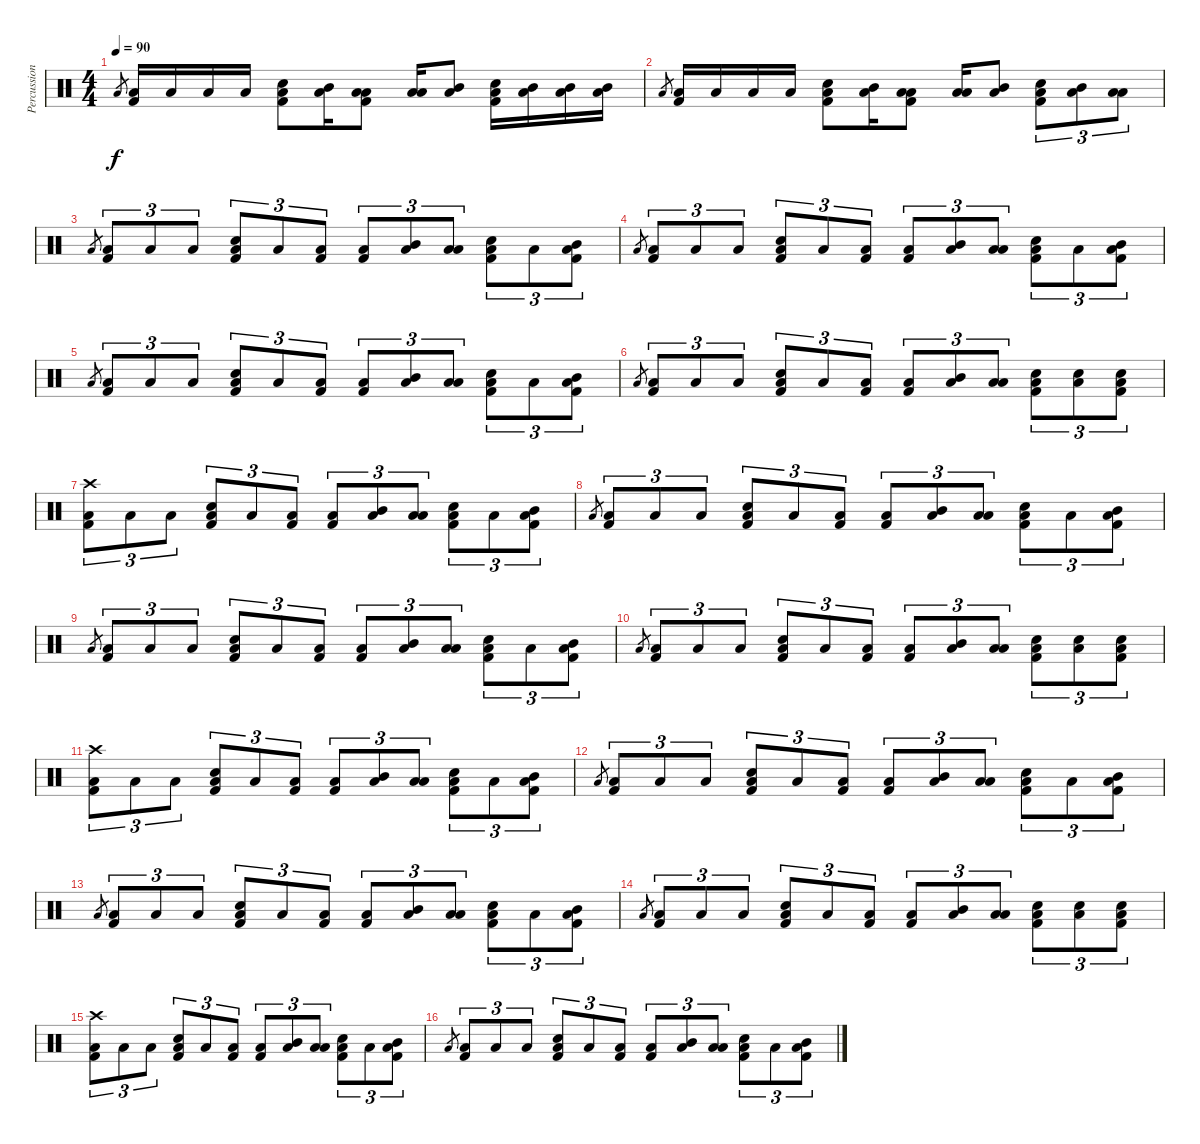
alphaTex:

\track ("Percussion" "Percussion") {instrument percussion}
\staff {score}
\articulation defaults
\ts (4 4)
\tempo 90
\clef neutral
\ks c "Low Floor Tom (hit)".8{gr dy f}
("Low Floor Tom (hit)" "Kick (hit) 2").16 "Low Floor Tom (hit)".16 "Low Floor Tom (hit)".16 "Low Floor Tom (hit)".16 ("Low Floor Tom (hit)" "Snare (hit) 2" "Kick (hit) 2").8 ("Low Floor Tom (hit)" "Mid Tom (hit)").16 ("Low Floor Tom (hit)" "Low Tom (hit)" "Kick (hit) 2").8 ("Low Floor Tom (hit)" "Low Tom (hit)").16 ("Low Floor Tom (hit)" "Mid Tom (hit)").8 ("Low Floor Tom (hit)" "Snare (hit) 2" "Kick (hit) 2").16 ("Low Floor Tom (hit)" "Mid Tom (hit)").16 ("Low Floor Tom (hit)" "Mid Tom (hit)").16 ("Low Floor Tom (hit)" "Mid Tom (hit)").16 |
"Low Floor Tom (hit)".8{gr} ("Low Floor Tom (hit)" "Kick (hit) 2").16 "Low Floor Tom (hit)".16 "Low Floor Tom (hit)".16 "Low Floor Tom (hit)".16 ("Low Floor Tom (hit)" "Snare (hit) 2" "Kick (hit) 2").8 ("Low Floor Tom (hit)" "Mid Tom (hit)").16 ("Low Floor Tom (hit)" "Low Tom (hit)" "Kick (hit) 2").8 ("Low Floor Tom (hit)" "Low Tom (hit)").16 ("Low Floor Tom (hit)" "Mid Tom (hit)").8 ("Low Floor Tom (hit)" "Snare (hit) 2" "Kick (hit) 2").8{tu (3 2)} ("Low Floor Tom (hit)" "Mid Tom (hit)").8{tu (3 2)} ("Low Floor Tom (hit)" "Low Tom (hit)").8{tu (3 2)} |
"Low Floor Tom (hit)".8{gr} ("Low Floor Tom (hit)" "Kick (hit) 2").8{tu (3 2)} "Low Floor Tom (hit)".8{tu (3 2)} "Low Floor Tom (hit)".8{tu (3 2)} ("Low Floor Tom (hit)" "Snare (hit) 2" "Kick (hit) 2").8{tu (3 2)} "Low Floor Tom (hit)".8{tu (3 2)} ("Low Floor Tom (hit)" "Kick (hit) 2").8{tu (3 2)} ("Low Floor Tom (hit)" "Kick (hit) 2").8{tu (3 2)} ("Low Floor Tom (hit)" "Mid Tom (hit)").8{tu (3 2)} ("Low Floor Tom (hit)" "Low Tom (hit)").8{tu (3 2)} ("Low Floor Tom (hit)" "Snare (hit) 2" "Kick (hit) 2").8{tu (3 2)} "Low Floor Tom (hit)".8{tu (3 2)} ("Low Floor Tom (hit)" "Mid Tom (hit)" "Kick (hit) 2").8{tu (3 2)} |
"Low Floor Tom (hit)".8{gr} ("Low Floor Tom (hit)" "Kick (hit) 2").8{tu (3 2)} "Low Floor Tom (hit)".8{tu (3 2)} "Low Floor Tom (hit)".8{tu (3 2)} ("Low Floor Tom (hit)" "Snare (hit) 2" "Kick (hit) 2").8{tu (3 2)} "Low Floor Tom (hit)".8{tu (3 2)} ("Low Floor Tom (hit)" "Kick (hit) 2").8{tu (3 2)} ("Low Floor Tom (hit)" "Kick (hit) 2").8{tu (3 2)} ("Low Floor Tom (hit)" "Mid Tom (hit)").8{tu (3 2)} ("Low Floor Tom (hit)" "Low Tom (hit)").8{tu (3 2)} ("Low Floor Tom (hit)" "Snare (hit) 2" "Kick (hit) 2").8{tu (3 2)} "Low Floor Tom (hit)".8{tu (3 2)} ("Low Floor Tom (hit)" "Mid Tom (hit)" "Kick (hit) 2").8{tu (3 2)} |
"Low Floor Tom (hit)".8{gr} ("Low Floor Tom (hit)" "Kick (hit) 2").8{tu (3 2)} "Low Floor Tom (hit)".8{tu (3 2)} "Low Floor Tom (hit)".8{tu (3 2)} ("Low Floor Tom (hit)" "Snare (hit) 2" "Kick (hit) 2").8{tu (3 2)} "Low Floor Tom (hit)".8{tu (3 2)} ("Low Floor Tom (hit)" "Kick (hit) 2").8{tu (3 2)} ("Low Floor Tom (hit)" "Kick (hit) 2").8{tu (3 2)} ("Low Floor Tom (hit)" "Mid Tom (hit)").8{tu (3 2)} ("Low Floor Tom (hit)" "Low Tom (hit)").8{tu (3 2)} ("Low Floor Tom (hit)" "Snare (hit) 2" "Kick (hit) 2").8{tu (3 2)} "Low Floor Tom (hit)".8{tu (3 2)} ("Low Floor Tom (hit)" "Mid Tom (hit)" "Kick (hit) 2").8{tu (3 2)} |
"Low Floor Tom (hit)".8{gr} ("Low Floor Tom (hit)" "Kick (hit) 2").8{tu (3 2)} "Low Floor Tom (hit)".8{tu (3 2)} "Low Floor Tom (hit)".8{tu (3 2)} ("Low Floor Tom (hit)" "Snare (hit) 2" "Kick (hit) 2").8{tu (3 2)} "Low Floor Tom (hit)".8{tu (3 2)} ("Low Floor Tom (hit)" "Kick (hit) 2").8{tu (3 2)} ("Low Floor Tom (hit)" "Kick (hit) 2").8{tu (3 2)} ("Low Floor Tom (hit)" "Mid Tom (hit)").8{tu (3 2)} ("Low Floor Tom (hit)" "Low Tom (hit)").8{tu (3 2)} ("Low Floor Tom (hit)" "Snare (hit) 2" "Kick (hit) 2").8{tu (3 2)} ("Low Floor Tom (hit)" "Snare (hit) 2").8{tu (3 2)} ("Low Floor Tom (hit)" "Snare (hit) 2" "Kick (hit) 2").8{tu (3 2)} |
("Crash high (hit)" "Low Floor Tom (hit)" "Kick (hit) 2").8{tu (3 2)} "Low Floor Tom (hit)".8{tu (3 2)} "Low Floor Tom (hit)".8{tu (3 2)} ("Low Floor Tom (hit)" "Snare (hit) 2" "Kick (hit) 2").8{tu (3 2)} "Low Floor Tom (hit)".8{tu (3 2)} ("Low Floor Tom (hit)" "Kick (hit) 2").8{tu (3 2)} ("Low Floor Tom (hit)" "Kick (hit) 2").8{tu (3 2)} ("Low Floor Tom (hit)" "Mid Tom (hit)").8{tu (3 2)} ("Low Floor Tom (hit)" "Low Tom (hit)").8{tu (3 2)} ("Low Floor Tom (hit)" "Snare (hit) 2" "Kick (hit) 2").8{tu (3 2)} "Low Floor Tom (hit)".8{tu (3 2)} ("Low Floor Tom (hit)" "Mid Tom (hit)" "Kick (hit) 2").8{tu (3 2)} |
"Low Floor Tom (hit)".8{gr} ("Low Floor Tom (hit)" "Kick (hit) 2").8{tu (3 2)} "Low Floor Tom (hit)".8{tu (3 2)} "Low Floor Tom (hit)".8{tu (3 2)} ("Low Floor Tom (hit)" "Snare (hit) 2" "Kick (hit) 2").8{tu (3 2)} "Low Floor Tom (hit)".8{tu (3 2)} ("Low Floor Tom (hit)" "Kick (hit) 2").8{tu (3 2)} ("Low Floor Tom (hit)" "Kick (hit) 2").8{tu (3 2)} ("Low Floor Tom (hit)" "Mid Tom (hit)").8{tu (3 2)} ("Low Floor Tom (hit)" "Low Tom (hit)").8{tu (3 2)} ("Low Floor Tom (hit)" "Snare (hit) 2" "Kick (hit) 2").8{tu (3 2)} "Low Floor Tom (hit)".8{tu (3 2)} ("Low Floor Tom (hit)" "Mid Tom (hit)" "Kick (hit) 2").8{tu (3 2)} |
"Low Floor Tom (hit)".8{gr} ("Low Floor Tom (hit)" "Kick (hit) 2").8{tu (3 2)} "Low Floor Tom (hit)".8{tu (3 2)} "Low Floor Tom (hit)".8{tu (3 2)} ("Low Floor Tom (hit)" "Snare (hit) 2" "Kick (hit) 2").8{tu (3 2)} "Low Floor Tom (hit)".8{tu (3 2)} ("Low Floor Tom (hit)" "Kick (hit) 2").8{tu (3 2)} ("Low Floor Tom (hit)" "Kick (hit) 2").8{tu (3 2)} ("Low Floor Tom (hit)" "Mid Tom (hit)").8{tu (3 2)} ("Low Floor Tom (hit)" "Low Tom (hit)").8{tu (3 2)} ("Low Floor Tom (hit)" "Snare (hit) 2" "Kick (hit) 2").8{tu (3 2)} "Low Floor Tom (hit)".8{tu (3 2)} ("Low Floor Tom (hit)" "Mid Tom (hit)" "Kick (hit) 2").8{tu (3 2)} |
"Low Floor Tom (hit)".8{gr} ("Low Floor Tom (hit)" "Kick (hit) 2").8{tu (3 2)} "Low Floor Tom (hit)".8{tu (3 2)} "Low Floor Tom (hit)".8{tu (3 2)} ("Low Floor Tom (hit)" "Snare (hit) 2" "Kick (hit) 2").8{tu (3 2)} "Low Floor Tom (hit)".8{tu (3 2)} ("Low Floor Tom (hit)" "Kick (hit) 2").8{tu (3 2)} ("Low Floor Tom (hit)" "Kick (hit) 2").8{tu (3 2)} ("Low Floor Tom (hit)" "Mid Tom (hit)").8{tu (3 2)} ("Low Floor Tom (hit)" "Low Tom (hit)").8{tu (3 2)} ("Low Floor Tom (hit)" "Snare (hit) 2" "Kick (hit) 2").8{tu (3 2)} ("Low Floor Tom (hit)" "Snare (hit) 2").8{tu (3 2)} ("Low Floor Tom (hit)" "Snare (hit) 2" "Kick (hit) 2").8{tu (3 2)} |
("Crash high (hit)" "Low Floor Tom (hit)" "Kick (hit) 2").8{tu (3 2)} "Low Floor Tom (hit)".8{tu (3 2)} "Low Floor Tom (hit)".8{tu (3 2)} ("Low Floor Tom (hit)" "Snare (hit) 2" "Kick (hit) 2").8{tu (3 2)} "Low Floor Tom (hit)".8{tu (3 2)} ("Low Floor Tom (hit)" "Kick (hit) 2").8{tu (3 2)} ("Low Floor Tom (hit)" "Kick (hit) 2").8{tu (3 2)} ("Low Floor Tom (hit)" "Mid Tom (hit)").8{tu (3 2)} ("Low Floor Tom (hit)" "Low Tom (hit)").8{tu (3 2)} ("Low Floor Tom (hit)" "Snare (hit) 2" "Kick (hit) 2").8{tu (3 2)} "Low Floor Tom (hit)".8{tu (3 2)} ("Low Floor Tom (hit)" "Mid Tom (hit)" "Kick (hit) 2").8{tu (3 2)} |
"Low Floor Tom (hit)".8{gr} ("Low Floor Tom (hit)" "Kick (hit) 2").8{tu (3 2)} "Low Floor Tom (hit)".8{tu (3 2)} "Low Floor Tom (hit)".8{tu (3 2)} ("Low Floor Tom (hit)" "Snare (hit) 2" "Kick (hit) 2").8{tu (3 2)} "Low Floor Tom (hit)".8{tu (3 2)} ("Low Floor Tom (hit)" "Kick (hit) 2").8{tu (3 2)} ("Low Floor Tom (hit)" "Kick (hit) 2").8{tu (3 2)} ("Low Floor Tom (hit)" "Mid Tom (hit)").8{tu (3 2)} ("Low Floor Tom (hit)" "Low Tom (hit)").8{tu (3 2)} ("Low Floor Tom (hit)" "Snare (hit) 2" "Kick (hit) 2").8{tu (3 2)} "Low Floor Tom (hit)".8{tu (3 2)} ("Low Floor Tom (hit)" "Mid Tom (hit)" "Kick (hit) 2").8{tu (3 2)} |
"Low Floor Tom (hit)".8{gr} ("Low Floor Tom (hit)" "Kick (hit) 2").8{tu (3 2)} "Low Floor Tom (hit)".8{tu (3 2)} "Low Floor Tom (hit)".8{tu (3 2)} ("Low Floor Tom (hit)" "Snare (hit) 2" "Kick (hit) 2").8{tu (3 2)} "Low Floor Tom (hit)".8{tu (3 2)} ("Low Floor Tom (hit)" "Kick (hit) 2").8{tu (3 2)} ("Low Floor Tom (hit)" "Kick (hit) 2").8{tu (3 2)} ("Low Floor Tom (hit)" "Mid Tom (hit)").8{tu (3 2)} ("Low Floor Tom (hit)" "Low Tom (hit)").8{tu (3 2)} ("Low Floor Tom (hit)" "Snare (hit) 2" "Kick (hit) 2").8{tu (3 2)} "Low Floor Tom (hit)".8{tu (3 2)} ("Low Floor Tom (hit)" "Mid Tom (hit)" "Kick (hit) 2").8{tu (3 2)} |
"Low Floor Tom (hit)".8{gr} ("Low Floor Tom (hit)" "Kick (hit) 2").8{tu (3 2)} "Low Floor Tom (hit)".8{tu (3 2)} "Low Floor Tom (hit)".8{tu (3 2)} ("Low Floor Tom (hit)" "Snare (hit) 2" "Kick (hit) 2").8{tu (3 2)} "Low Floor Tom (hit)".8{tu (3 2)} ("Low Floor Tom (hit)" "Kick (hit) 2").8{tu (3 2)} ("Low Floor Tom (hit)" "Kick (hit) 2").8{tu (3 2)} ("Low Floor Tom (hit)" "Mid Tom (hit)").8{tu (3 2)} ("Low Floor Tom (hit)" "Low Tom (hit)").8{tu (3 2)} ("Low Floor Tom (hit)" "Snare (hit) 2" "Kick (hit) 2").8{tu (3 2)} ("Low Floor Tom (hit)" "Snare (hit) 2").8{tu (3 2)} ("Low Floor Tom (hit)" "Snare (hit) 2" "Kick (hit) 2").8{tu (3 2)} |
("Crash high (hit)" "Low Floor Tom (hit)" "Kick (hit) 2").8{tu (3 2)} "Low Floor Tom (hit)".8{tu (3 2)} "Low Floor Tom (hit)".8{tu (3 2)} ("Low Floor Tom (hit)" "Snare (hit) 2" "Kick (hit) 2").8{tu (3 2)} "Low Floor Tom (hit)".8{tu (3 2)} ("Low Floor Tom (hit)" "Kick (hit) 2").8{tu (3 2)} ("Low Floor Tom (hit)" "Kick (hit) 2").8{tu (3 2)} ("Low Floor Tom (hit)" "Mid Tom (hit)").8{tu (3 2)} ("Low Floor Tom (hit)" "Low Tom (hit)").8{tu (3 2)} ("Low Floor Tom (hit)" "Snare (hit) 2" "Kick (hit) 2").8{tu (3 2)} "Low Floor Tom (hit)".8{tu (3 2)} ("Low Floor Tom (hit)" "Mid Tom (hit)" "Kick (hit) 2").8{tu (3 2)} |
"Low Floor Tom (hit)".8{gr} ("Low Floor Tom (hit)" "Kick (hit) 2").8{tu (3 2)} "Low Floor Tom (hit)".8{tu (3 2)} "Low Floor Tom (hit)".8{tu (3 2)} ("Low Floor Tom (hit)" "Snare (hit) 2" "Kick (hit) 2").8{tu (3 2)} "Low Floor Tom (hit)".8{tu (3 2)} ("Low Floor Tom (hit)" "Kick (hit) 2").8{tu (3 2)} ("Low Floor Tom (hit)" "Kick (hit) 2").8{tu (3 2)} ("Low Floor Tom (hit)" "Mid Tom (hit)").8{tu (3 2)} ("Low Floor Tom (hit)" "Low Tom (hit)").8{tu (3 2)} ("Low Floor Tom (hit)" "Snare (hit) 2" "Kick (hit) 2").8{tu (3 2)} "Low Floor Tom (hit)".8{tu (3 2)} ("Low Floor Tom (hit)" "Mid Tom (hit)" "Kick (hit) 2").8{tu (3 2)}
